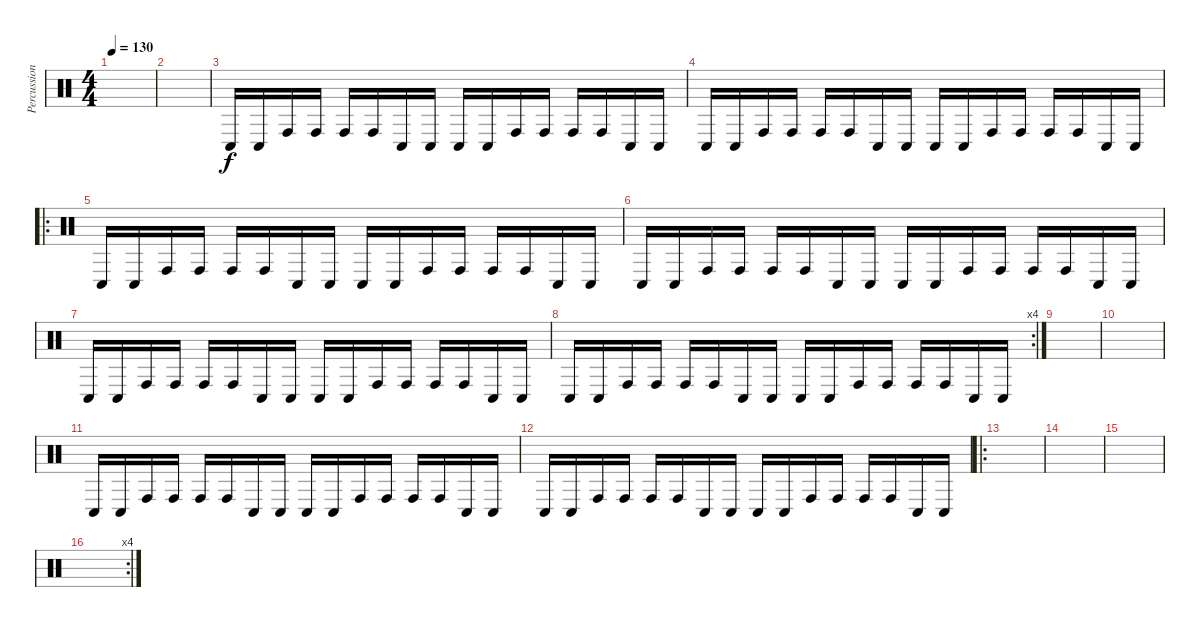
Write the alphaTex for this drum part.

\track ("Percussion" "Percussion") {instrument percussion}
\staff {score}
\articulation defaults
\ts (4 4)
\tempo 130
\clef neutral
\ks c
|
|
"Conga low (hit)".16 "Conga low (hit)".16 "Conga high (hit)".16 "Conga high (hit)".16 "Conga high (hit)".16 "Conga high (hit)".16 "Conga low (hit)".16 "Conga low (hit)".16 "Conga low (hit)".16 "Conga low (hit)".16 "Conga high (hit)".16 "Conga high (hit)".16 "Conga high (hit)".16 "Conga high (hit)".16 "Conga low (hit)".16 "Conga low (hit)".16 |
"Conga low (hit)".16 "Conga low (hit)".16 "Conga high (hit)".16 "Conga high (hit)".16 "Conga high (hit)".16 "Conga high (hit)".16 "Conga low (hit)".16 "Conga low (hit)".16 "Conga low (hit)".16 "Conga low (hit)".16 "Conga high (hit)".16 "Conga high (hit)".16 "Conga high (hit)".16 "Conga high (hit)".16 "Conga low (hit)".16 "Conga low (hit)".16 |
\ro "Conga low (hit)".16 "Conga low (hit)".16 "Conga high (hit)".16 "Conga high (hit)".16 "Conga high (hit)".16 "Conga high (hit)".16 "Conga low (hit)".16 "Conga low (hit)".16 "Conga low (hit)".16 "Conga low (hit)".16 "Conga high (hit)".16 "Conga high (hit)".16 "Conga high (hit)".16 "Conga high (hit)".16 "Conga low (hit)".16 "Conga low (hit)".16
|
"Conga low (hit)".16 "Conga low (hit)".16 "Conga high (hit)".16 "Conga high (hit)".16 "Conga high (hit)".16 "Conga high (hit)".16 "Conga low (hit)".16 "Conga low (hit)".16 "Conga low (hit)".16 "Conga low (hit)".16 "Conga high (hit)".16 "Conga high (hit)".16 "Conga high (hit)".16 "Conga high (hit)".16 "Conga low (hit)".16 "Conga low (hit)".16 |
"Conga low (hit)".16 "Conga low (hit)".16 "Conga high (hit)".16 "Conga high (hit)".16 "Conga high (hit)".16 "Conga high (hit)".16 "Conga low (hit)".16 "Conga low (hit)".16 "Conga low (hit)".16 "Conga low (hit)".16 "Conga high (hit)".16 "Conga high (hit)".16 "Conga high (hit)".16 "Conga high (hit)".16 "Conga low (hit)".16 "Conga low (hit)".16 |
\rc 4 "Conga low (hit)".16 "Conga low (hit)".16 "Conga high (hit)".16 "Conga high (hit)".16 "Conga high (hit)".16 "Conga high (hit)".16 "Conga low (hit)".16 "Conga low (hit)".16 "Conga low (hit)".16 "Conga low (hit)".16 "Conga high (hit)".16 "Conga high (hit)".16 "Conga high (hit)".16 "Conga high (hit)".16 "Conga low (hit)".16 "Conga low (hit)".16
|
|
|
"Conga low (hit)".16 "Conga low (hit)".16 "Conga high (hit)".16 "Conga high (hit)".16 "Conga high (hit)".16 "Conga high (hit)".16 "Conga low (hit)".16 "Conga low (hit)".16 "Conga low (hit)".16 "Conga low (hit)".16 "Conga high (hit)".16 "Conga high (hit)".16 "Conga high (hit)".16 "Conga high (hit)".16 "Conga low (hit)".16 "Conga low (hit)".16 |
"Conga low (hit)".16 "Conga low (hit)".16 "Conga high (hit)".16 "Conga high (hit)".16 "Conga high (hit)".16 "Conga high (hit)".16 "Conga low (hit)".16 "Conga low (hit)".16 "Conga low (hit)".16 "Conga low (hit)".16 "Conga high (hit)".16 "Conga high (hit)".16 "Conga high (hit)".16 "Conga high (hit)".16 "Conga low (hit)".16 "Conga low (hit)".16 |
\ro
|
|
|
\rc 4
